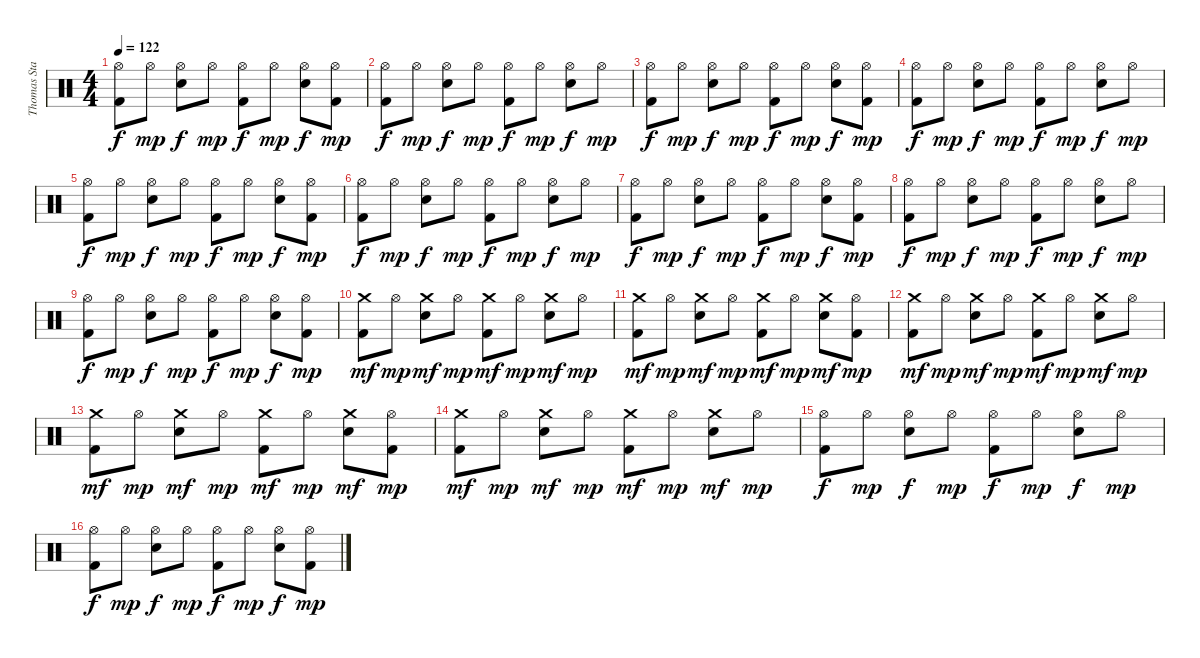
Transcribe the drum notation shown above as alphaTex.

\track ("Thomas Stauch" "Thomas Sta") {instrument percussion}
\staff {score}
\articulation defaults
\ts (4 4)
\tempo 122
\clef neutral
\ks c
("Hi-Hat (open)" "Kick (hit) 2").8{dy f} "Hi-Hat (open)".8{dy mp} ("Hi-Hat (open)" "Electric Snare (hit)").8{dy f} "Hi-Hat (open)".8{dy mp} ("Hi-Hat (open)" "Kick (hit) 2").8{dy f} "Hi-Hat (open)".8{dy mp} ("Hi-Hat (open)" "Electric Snare (hit)").8{dy f} ("Hi-Hat (open)" "Kick (hit) 2").8{dy mp} |
("Hi-Hat (open)" "Kick (hit) 2").8{dy f} "Hi-Hat (open)".8{dy mp} ("Hi-Hat (open)" "Electric Snare (hit)").8{dy f} "Hi-Hat (open)".8{dy mp} ("Hi-Hat (open)" "Kick (hit) 2").8{dy f} "Hi-Hat (open)".8{dy mp} ("Hi-Hat (open)" "Electric Snare (hit)").8{dy f} "Hi-Hat (open)".8{dy mp} |
("Hi-Hat (open)" "Kick (hit) 2").8{dy f} "Hi-Hat (open)".8{dy mp} ("Hi-Hat (open)" "Electric Snare (hit)").8{dy f} "Hi-Hat (open)".8{dy mp} ("Hi-Hat (open)" "Kick (hit) 2").8{dy f} "Hi-Hat (open)".8{dy mp} ("Hi-Hat (open)" "Electric Snare (hit)").8{dy f} ("Hi-Hat (open)" "Kick (hit) 2").8{dy mp} |
("Hi-Hat (open)" "Kick (hit) 2").8{dy f} "Hi-Hat (open)".8{dy mp} ("Hi-Hat (open)" "Electric Snare (hit)").8{dy f} "Hi-Hat (open)".8{dy mp} ("Hi-Hat (open)" "Kick (hit) 2").8{dy f} "Hi-Hat (open)".8{dy mp} ("Hi-Hat (open)" "Electric Snare (hit)").8{dy f} "Hi-Hat (open)".8{dy mp} |
("Hi-Hat (open)" "Kick (hit) 2").8{dy f} "Hi-Hat (open)".8{dy mp} ("Hi-Hat (open)" "Electric Snare (hit)").8{dy f} "Hi-Hat (open)".8{dy mp} ("Hi-Hat (open)" "Kick (hit) 2").8{dy f} "Hi-Hat (open)".8{dy mp} ("Hi-Hat (open)" "Electric Snare (hit)").8{dy f} ("Hi-Hat (open)" "Kick (hit) 2").8{dy mp} |
("Hi-Hat (open)" "Kick (hit) 2").8{dy f} "Hi-Hat (open)".8{dy mp} ("Hi-Hat (open)" "Electric Snare (hit)").8{dy f} "Hi-Hat (open)".8{dy mp} ("Hi-Hat (open)" "Kick (hit) 2").8{dy f} "Hi-Hat (open)".8{dy mp} ("Hi-Hat (open)" "Electric Snare (hit)").8{dy f} "Hi-Hat (open)".8{dy mp} |
("Hi-Hat (open)" "Kick (hit) 2").8{dy f} "Hi-Hat (open)".8{dy mp} ("Hi-Hat (open)" "Electric Snare (hit)").8{dy f} "Hi-Hat (open)".8{dy mp} ("Hi-Hat (open)" "Kick (hit) 2").8{dy f} "Hi-Hat (open)".8{dy mp} ("Hi-Hat (open)" "Electric Snare (hit)").8{dy f} ("Hi-Hat (open)" "Kick (hit) 2").8{dy mp} |
("Hi-Hat (open)" "Kick (hit) 2").8{dy f} "Hi-Hat (open)".8{dy mp} ("Hi-Hat (open)" "Electric Snare (hit)").8{dy f} "Hi-Hat (open)".8{dy mp} ("Hi-Hat (open)" "Kick (hit) 2").8{dy f} "Hi-Hat (open)".8{dy mp} ("Hi-Hat (open)" "Electric Snare (hit)").8{dy f} "Hi-Hat (open)".8{dy mp} |
("Hi-Hat (open)" "Kick (hit) 2").8{dy f} "Hi-Hat (open)".8{dy mp} ("Hi-Hat (open)" "Electric Snare (hit)").8{dy f} "Hi-Hat (open)".8{dy mp} ("Hi-Hat (open)" "Kick (hit) 2").8{dy f} "Hi-Hat (open)".8{dy mp} ("Hi-Hat (open)" "Electric Snare (hit)").8{dy f} ("Hi-Hat (open)" "Kick (hit) 2").8{dy mp} |
("Crash medium (hit)" "Kick (hit) 2").8{dy mf} "Hi-Hat (open)".8{dy mp} ("Crash medium (hit)" "Electric Snare (hit)").8{dy mf} "Hi-Hat (open)".8{dy mp} ("Crash medium (hit)" "Kick (hit) 2").8{dy mf} "Hi-Hat (open)".8{dy mp} ("Crash medium (hit)" "Electric Snare (hit)").8{dy mf} "Hi-Hat (open)".8{dy mp} |
("Crash medium (hit)" "Kick (hit) 2").8{dy mf} "Hi-Hat (open)".8{dy mp} ("Crash medium (hit)" "Electric Snare (hit)").8{dy mf} "Hi-Hat (open)".8{dy mp} ("Crash medium (hit)" "Kick (hit) 2").8{dy mf} "Hi-Hat (open)".8{dy mp} ("Crash medium (hit)" "Electric Snare (hit)").8{dy mf} ("Hi-Hat (open)" "Kick (hit) 2").8{dy mp} |
("Crash medium (hit)" "Kick (hit) 2").8{dy mf} "Hi-Hat (open)".8{dy mp} ("Crash medium (hit)" "Electric Snare (hit)").8{dy mf} "Hi-Hat (open)".8{dy mp} ("Crash medium (hit)" "Kick (hit) 2").8{dy mf} "Hi-Hat (open)".8{dy mp} ("Crash medium (hit)" "Electric Snare (hit)").8{dy mf} "Hi-Hat (open)".8{dy mp} |
("Crash medium (hit)" "Kick (hit) 2").8{dy mf} "Hi-Hat (open)".8{dy mp} ("Crash medium (hit)" "Electric Snare (hit)").8{dy mf} "Hi-Hat (open)".8{dy mp} ("Crash medium (hit)" "Kick (hit) 2").8{dy mf} "Hi-Hat (open)".8{dy mp} ("Crash medium (hit)" "Electric Snare (hit)").8{dy mf} ("Hi-Hat (open)" "Kick (hit) 2").8{dy mp} |
("Crash medium (hit)" "Kick (hit) 2").8{dy mf} "Hi-Hat (open)".8{dy mp} ("Crash medium (hit)" "Electric Snare (hit)").8{dy mf} "Hi-Hat (open)".8{dy mp} ("Crash medium (hit)" "Kick (hit) 2").8{dy mf} "Hi-Hat (open)".8{dy mp} ("Crash medium (hit)" "Electric Snare (hit)").8{dy mf} "Hi-Hat (open)".8{dy mp} |
("Hi-Hat (open)" "Kick (hit) 2").8{dy f} "Hi-Hat (open)".8{dy mp} ("Hi-Hat (open)" "Electric Snare (hit)").8{dy f} "Hi-Hat (open)".8{dy mp} ("Hi-Hat (open)" "Kick (hit) 2").8{dy f} "Hi-Hat (open)".8{dy mp} ("Hi-Hat (open)" "Electric Snare (hit)").8{dy f} "Hi-Hat (open)".8{dy mp} |
("Hi-Hat (open)" "Kick (hit) 2").8{dy f} "Hi-Hat (open)".8{dy mp} ("Hi-Hat (open)" "Electric Snare (hit)").8{dy f} "Hi-Hat (open)".8{dy mp} ("Hi-Hat (open)" "Kick (hit) 2").8{dy f} "Hi-Hat (open)".8{dy mp} ("Hi-Hat (open)" "Electric Snare (hit)").8{dy f} ("Hi-Hat (open)" "Kick (hit) 2").8{dy mp}
